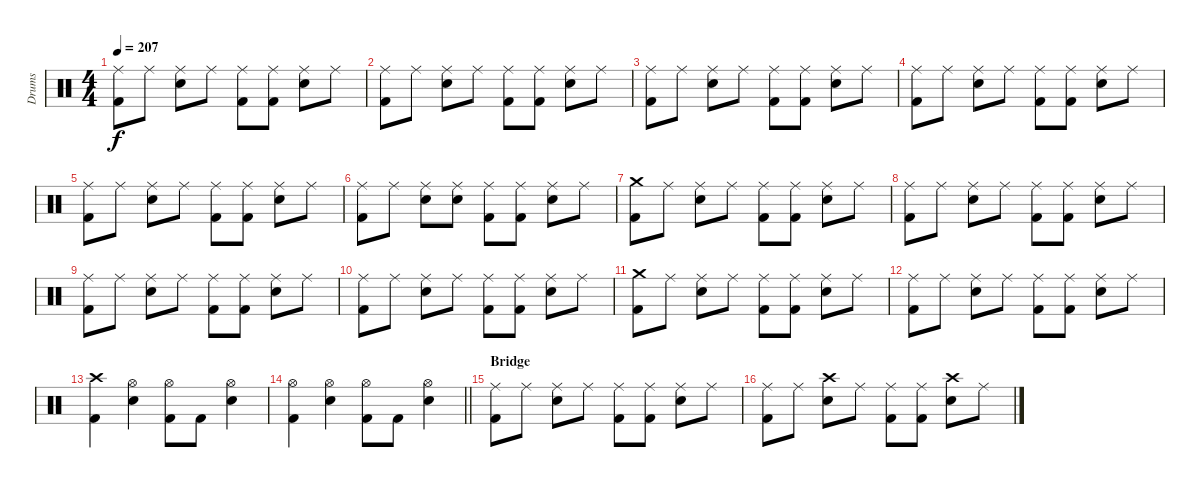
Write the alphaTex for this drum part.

\track ("Drums" "Drums") {instrument percussion}
\staff {score}
\articulation defaults
\ts (4 4)
\tempo 207
\clef neutral
\ks c
("Ride (middle)" "Kick (hit) 2").8{dy f} "Ride (middle)".8 ("Ride (middle)" "Electric Snare (hit)").8 "Ride (middle)".8 ("Ride (middle)" "Kick (hit) 2").8 ("Ride (middle)" "Kick (hit) 2").8 ("Ride (middle)" "Electric Snare (hit)").8 "Ride (middle)".8 |
("Ride (middle)" "Kick (hit) 2").8 "Ride (middle)".8 ("Ride (middle)" "Electric Snare (hit)").8 "Ride (middle)".8 ("Ride (middle)" "Kick (hit) 2").8 ("Ride (middle)" "Kick (hit) 2").8 ("Ride (middle)" "Electric Snare (hit)").8 "Ride (middle)".8 |
("Ride (middle)" "Kick (hit) 2").8 "Ride (middle)".8 ("Ride (middle)" "Electric Snare (hit)").8 "Ride (middle)".8 ("Ride (middle)" "Kick (hit) 2").8 ("Ride (middle)" "Kick (hit) 2").8 ("Ride (middle)" "Electric Snare (hit)").8 "Ride (middle)".8 |
("Ride (middle)" "Kick (hit) 2").8 "Ride (middle)".8 ("Ride (middle)" "Electric Snare (hit)").8 "Ride (middle)".8 ("Ride (middle)" "Kick (hit) 2").8 ("Ride (middle)" "Kick (hit) 2").8 ("Ride (middle)" "Electric Snare (hit)").8 "Ride (middle)".8 |
("Ride (middle)" "Kick (hit) 2").8 "Ride (middle)".8 ("Ride (middle)" "Electric Snare (hit)").8 "Ride (middle)".8 ("Ride (middle)" "Kick (hit) 2").8 ("Ride (middle)" "Kick (hit) 2").8 ("Ride (middle)" "Electric Snare (hit)").8 "Ride (middle)".8 |
("Ride (middle)" "Kick (hit) 2").8 "Ride (middle)".8 ("Ride (middle)" "Electric Snare (hit)").8 ("Ride (middle)" "Electric Snare (hit)").8 ("Ride (middle)" "Kick (hit) 2").8 ("Ride (middle)" "Kick (hit) 2").8 ("Ride (middle)" "Electric Snare (hit)").8 "Ride (middle)".8 |
("Crash medium (hit)" "Kick (hit) 2").8 "Ride (middle)".8 ("Ride (middle)" "Electric Snare (hit)").8 "Ride (middle)".8 ("Ride (middle)" "Kick (hit) 2").8 ("Ride (middle)" "Kick (hit) 2").8 ("Ride (middle)" "Electric Snare (hit)").8 "Ride (middle)".8 |
("Ride (middle)" "Kick (hit) 2").8 "Ride (middle)".8 ("Ride (middle)" "Electric Snare (hit)").8 "Ride (middle)".8 ("Ride (middle)" "Kick (hit) 2").8 ("Ride (middle)" "Kick (hit) 2").8 ("Ride (middle)" "Electric Snare (hit)").8 "Ride (middle)".8 |
("Ride (middle)" "Kick (hit) 2").8 "Ride (middle)".8 ("Ride (middle)" "Electric Snare (hit)").8 "Ride (middle)".8 ("Ride (middle)" "Kick (hit) 2").8 ("Ride (middle)" "Kick (hit) 2").8 ("Ride (middle)" "Electric Snare (hit)").8 "Ride (middle)".8 |
("Ride (middle)" "Kick (hit) 2").8 "Ride (middle)".8 ("Ride (middle)" "Electric Snare (hit)").8 "Ride (middle)".8 ("Ride (middle)" "Kick (hit) 2").8 ("Ride (middle)" "Kick (hit) 2").8 ("Ride (middle)" "Electric Snare (hit)").8 "Ride (middle)".8 |
("Crash medium (hit)" "Kick (hit) 2").8 "Ride (middle)".8 ("Ride (middle)" "Electric Snare (hit)").8 "Ride (middle)".8 ("Ride (middle)" "Kick (hit) 2").8 ("Ride (middle)" "Kick (hit) 2").8 ("Ride (middle)" "Electric Snare (hit)").8 "Ride (middle)".8 |
("Ride (middle)" "Kick (hit) 2").8 "Ride (middle)".8 ("Ride (middle)" "Electric Snare (hit)").8 "Ride (middle)".8 ("Ride (middle)" "Kick (hit) 2").8 ("Ride (middle)" "Kick (hit) 2").8 ("Ride (middle)" "Electric Snare (hit)").8 "Ride (middle)".8 |
("Crash high (hit)" "Kick (hit) 2").4 ("Hi-Hat (open)" "Electric Snare (hit)").4 ("Hi-Hat (open)" "Kick (hit) 2").8 "Kick (hit) 2".8 ("Hi-Hat (open)" "Electric Snare (hit)").4 |
\barLineRight lightlight
("Hi-Hat (open)" "Kick (hit) 2").4 ("Hi-Hat (open)" "Electric Snare (hit)").4 ("Hi-Hat (open)" "Kick (hit) 2").8 "Kick (hit) 2".8 ("Hi-Hat (open)" "Electric Snare (hit)").4 |
\section ("" "Bridge")
("Ride (middle)" "Kick (hit) 2").8 "Ride (middle)".8 ("Ride (middle)" "Electric Snare (hit)").8 "Ride (middle)".8 ("Ride (middle)" "Kick (hit) 2").8 ("Ride (middle)" "Kick (hit) 2").8 ("Ride (middle)" "Electric Snare (hit)").8 "Ride (middle)".8 |
("Ride (middle)" "Kick (hit) 2").8 "Ride (middle)".8 ("Crash high (hit)" "Electric Snare (hit)").8 "Ride (middle)".8 ("Ride (middle)" "Kick (hit) 2").8 ("Ride (middle)" "Kick (hit) 2").8 ("Crash high (hit)" "Electric Snare (hit)").8 "Ride (middle)".8
